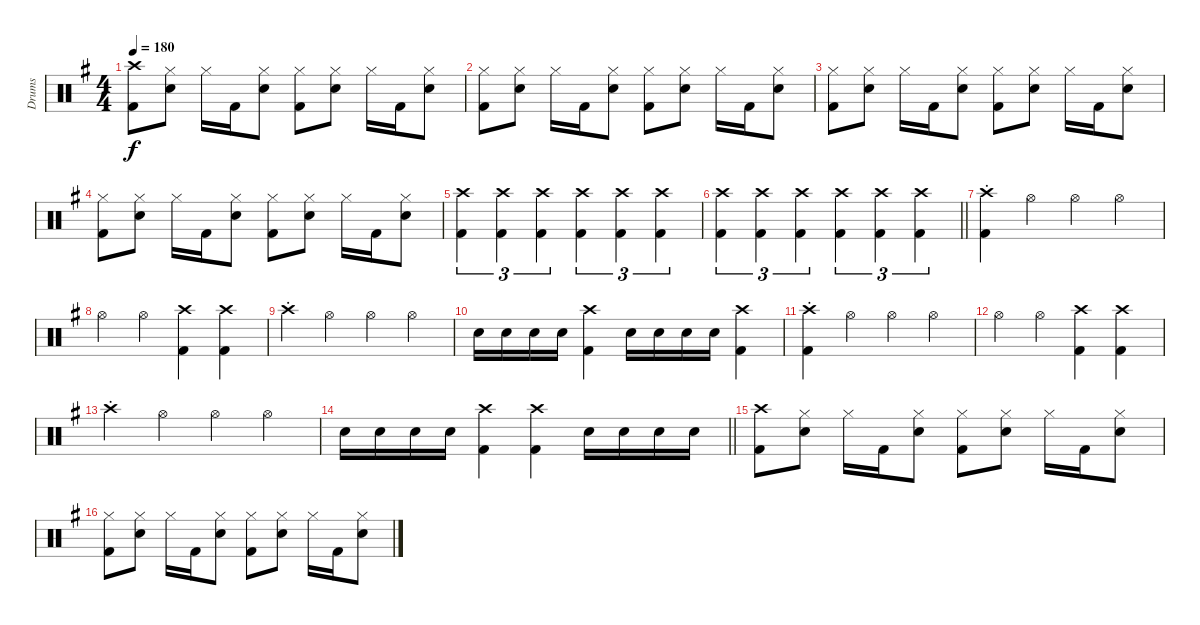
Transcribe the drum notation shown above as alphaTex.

\track ("Drums" "Drums") {instrument percussion}
\staff {score}
\articulation defaults
\ts (4 4)
\tempo 180
\clef neutral
\ks g
("Crash high (hit)" "Kick (hit) 2").8{dy f} ("Hi-Hat (closed)" "Snare (hit) 2").8 "Hi-Hat (closed)".16 "Kick (hit) 2".16 ("Hi-Hat (closed)" "Snare (hit) 2").8 ("Hi-Hat (closed)" "Kick (hit) 2").8 ("Hi-Hat (closed)" "Snare (hit) 2").8 "Hi-Hat (closed)".16 "Kick (hit) 2".16 ("Hi-Hat (closed)" "Snare (hit) 2").8 |
("Hi-Hat (closed)" "Kick (hit) 2").8 ("Hi-Hat (closed)" "Snare (hit) 2").8 "Hi-Hat (closed)".16 "Kick (hit) 2".16 ("Hi-Hat (closed)" "Snare (hit) 2").8 ("Hi-Hat (closed)" "Kick (hit) 2").8 ("Hi-Hat (closed)" "Snare (hit) 2").8 "Hi-Hat (closed)".16 "Kick (hit) 2".16 ("Hi-Hat (closed)" "Snare (hit) 2").8 |
("Hi-Hat (closed)" "Kick (hit) 2").8 ("Hi-Hat (closed)" "Snare (hit) 2").8 "Hi-Hat (closed)".16 "Kick (hit) 2".16 ("Hi-Hat (closed)" "Snare (hit) 2").8 ("Hi-Hat (closed)" "Kick (hit) 2").8 ("Hi-Hat (closed)" "Snare (hit) 2").8 "Hi-Hat (closed)".16 "Kick (hit) 2".16 ("Hi-Hat (closed)" "Snare (hit) 2").8 |
("Hi-Hat (closed)" "Kick (hit) 2").8 ("Hi-Hat (closed)" "Snare (hit) 2").8 "Hi-Hat (closed)".16 "Kick (hit) 2".16 ("Hi-Hat (closed)" "Snare (hit) 2").8 ("Hi-Hat (closed)" "Kick (hit) 2").8 ("Hi-Hat (closed)" "Snare (hit) 2").8 "Hi-Hat (closed)".16 "Kick (hit) 2".16 ("Hi-Hat (closed)" "Snare (hit) 2").8 |
("Crash high (hit)" "Kick (hit) 2").4{tu (3 2)} ("Crash high (hit)" "Kick (hit) 2").4{tu (3 2)} ("Crash high (hit)" "Kick (hit) 2").4{tu (3 2)} ("Crash high (hit)" "Kick (hit) 2").4{tu (3 2)} ("Crash high (hit)" "Kick (hit) 2").4{tu (3 2)} ("Crash high (hit)" "Kick (hit) 2").4{tu (3 2)} |
\barLineRight lightlight
("Crash high (hit)" "Kick (hit) 2").4{tu (3 2)} ("Crash high (hit)" "Kick (hit) 2").4{tu (3 2)} ("Crash high (hit)" "Kick (hit) 2").4{tu (3 2)} ("Crash high (hit)" "Kick (hit) 2").4{tu (3 2)} ("Crash high (hit)" "Kick (hit) 2").4{tu (3 2)} ("Crash high (hit)" "Kick (hit) 2").4{tu (3 2)} |
("Crash high (hit)"{st} "Kick (hit) 2").4 "Hi-Hat (open)".4 "Hi-Hat (open)".4 "Hi-Hat (open)".4 |
"Hi-Hat (open)".4 "Hi-Hat (open)".4 ("Crash high (hit)" "Kick (hit) 2").4 ("Crash high (hit)" "Kick (hit) 2").4 |
"Crash high (hit)"{st}.4 "Hi-Hat (open)".4 "Hi-Hat (open)".4 "Hi-Hat (open)".4 |
"Snare (hit) 2".16 "Snare (hit) 2".16 "Snare (hit) 2".16 "Snare (hit) 2".16 ("Crash high (hit)" "Kick (hit) 2").4 "Snare (hit) 2".16 "Snare (hit) 2".16 "Snare (hit) 2".16 "Snare (hit) 2".16 ("Crash high (hit)" "Kick (hit) 2").4 |
("Crash high (hit)"{st} "Kick (hit) 2").4 "Hi-Hat (open)".4 "Hi-Hat (open)".4 "Hi-Hat (open)".4 |
"Hi-Hat (open)".4 "Hi-Hat (open)".4 ("Crash high (hit)" "Kick (hit) 2").4 ("Crash high (hit)" "Kick (hit) 2").4 |
"Crash high (hit)"{st}.4 "Hi-Hat (open)".4 "Hi-Hat (open)".4 "Hi-Hat (open)".4 |
\barLineRight lightlight "Snare (hit) 2".16 "Snare (hit) 2".16 "Snare (hit) 2".16 "Snare (hit) 2".16
("Crash high (hit)" "Kick (hit) 2").4 ("Crash high (hit)" "Kick (hit) 2").4 "Snare (hit) 2".16 "Snare (hit) 2".16 "Snare (hit) 2".16 "Snare (hit) 2".16 |
("Crash high (hit)" "Kick (hit) 2").8 ("Hi-Hat (closed)" "Snare (hit) 2").8 "Hi-Hat (closed)".16 "Kick (hit) 2".16 ("Hi-Hat (closed)" "Snare (hit) 2").8 ("Hi-Hat (closed)" "Kick (hit) 2").8 ("Hi-Hat (closed)" "Snare (hit) 2").8 "Hi-Hat (closed)".16 "Kick (hit) 2".16 ("Hi-Hat (closed)" "Snare (hit) 2").8 |
("Hi-Hat (closed)" "Kick (hit) 2").8 ("Hi-Hat (closed)" "Snare (hit) 2").8 "Hi-Hat (closed)".16 "Kick (hit) 2".16 ("Hi-Hat (closed)" "Snare (hit) 2").8 ("Hi-Hat (closed)" "Kick (hit) 2").8 ("Hi-Hat (closed)" "Snare (hit) 2").8 "Hi-Hat (closed)".16 "Kick (hit) 2".16 ("Hi-Hat (closed)" "Snare (hit) 2").8
